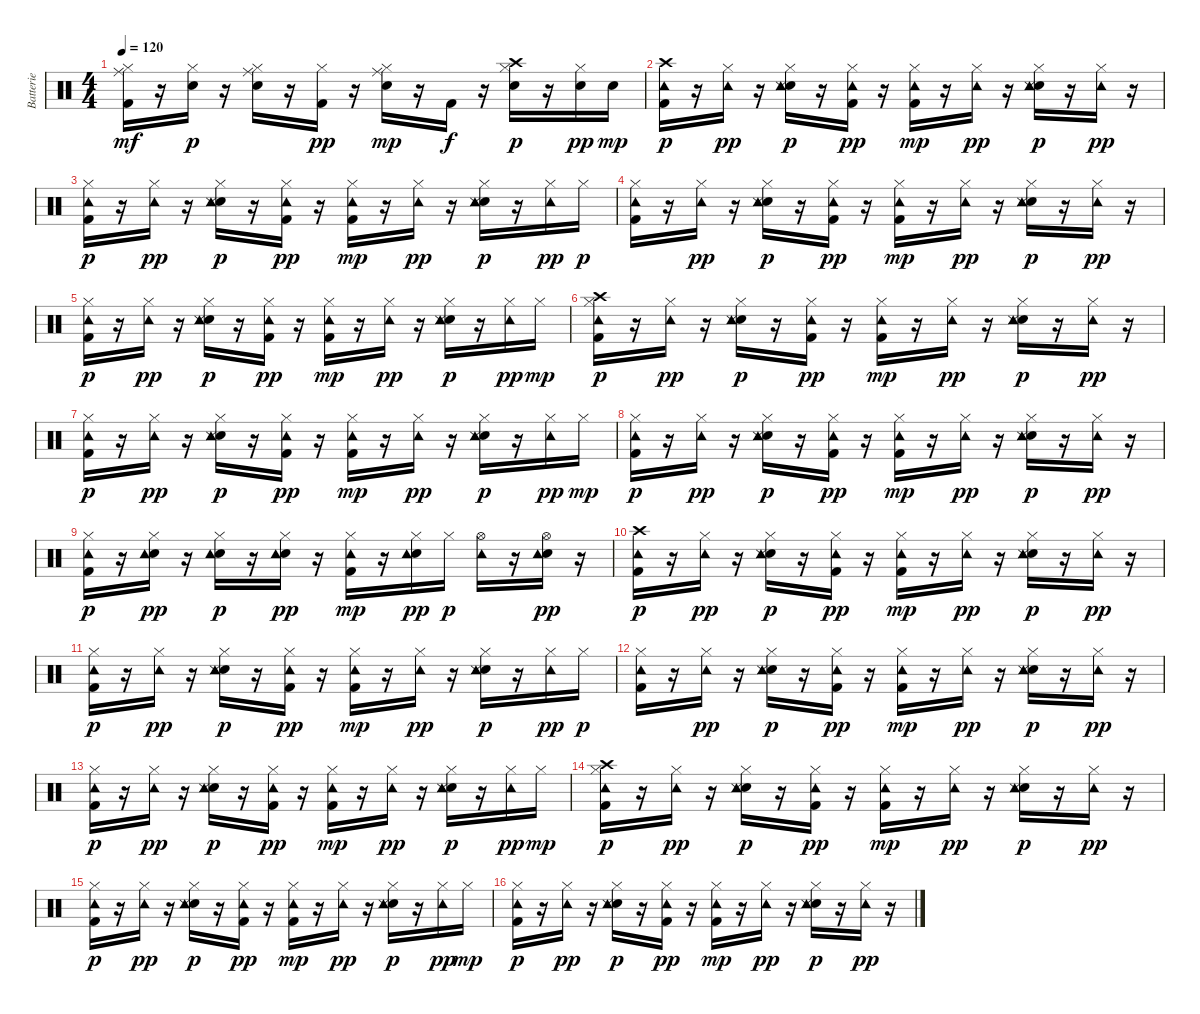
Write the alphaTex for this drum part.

\track ("Batterie" "Batterie") {instrument percussion}
\staff {score}
\articulation defaults
\ts (4 4)
\tempo 120
\clef neutral
\ks c
("Kick (hit) 2" "Hi-Hat (closed)" "Ride (middle)").16{dy mf} r.16 ("Snare (hit) 2" "Hi-Hat (closed)").16{dy p} r.16 ("Snare (hit) 2" "Hi-Hat (closed)" "Ride (middle)").16 r.16 ("Kick (hit) 2" "Hi-Hat (closed)").16{dy pp} r.16 ("Snare (hit) 2" "Hi-Hat (closed)" "Ride (middle)").16{dy mp} r.16 "Kick (hit) 2".16{dy f} r.16 ("Snare (hit) 2" "Hi-Hat (closed)" "Crash high (hit)").16{dy p} r.16 ("Snare (hit) 2" "Hi-Hat (closed)").16{dy pp} "Snare (hit) 2".16{dy mp} |
("Kick (hit) 2" "Crash high (hit)" "Tambourine (hit)").16{dy p} r.16 ("Hi-Hat (closed)" "Tambourine (hit)").16{dy pp} r.16 ("Snare (hit) 2" "Hi-Hat (closed)" "Snare (side stick) 3" "Tambourine (hit)").16{dy p} r.16 ("Kick (hit) 2" "Hi-Hat (closed)" "Tambourine (hit)").16{dy pp} r.16 ("Kick (hit) 2" "Hi-Hat (closed)" "Tambourine (hit)").16{dy mp} r.16 ("Hi-Hat (closed)" "Tambourine (hit)").16{dy pp} r.16 ("Snare (hit) 2" "Hi-Hat (closed)" "Snare (side stick) 3" "Tambourine (hit)").16{dy p} r.16 ("Hi-Hat (closed)" "Tambourine (hit)").16{dy pp} r.16 |
("Kick (hit) 2" "Hi-Hat (closed)" "Tambourine (hit)").16{dy p} r.16 ("Hi-Hat (closed)" "Tambourine (hit)").16{dy pp} r.16 ("Snare (hit) 2" "Hi-Hat (closed)" "Snare (side stick) 3" "Tambourine (hit)").16{dy p} r.16 ("Kick (hit) 2" "Hi-Hat (closed)" "Tambourine (hit)").16{dy pp} r.16 ("Kick (hit) 2" "Hi-Hat (closed)" "Tambourine (hit)").16{dy mp} r.16 ("Hi-Hat (closed)" "Tambourine (hit)").16{dy pp} r.16 ("Snare (hit) 2" "Hi-Hat (closed)" "Snare (side stick) 3" "Tambourine (hit)").16{dy p} r.16 ("Hi-Hat (closed)" "Tambourine (hit)").16{dy pp} "Hi-Hat (closed)".16{dy p} |
("Kick (hit) 2" "Hi-Hat (closed)" "Tambourine (hit)").16 r.16 ("Hi-Hat (closed)" "Tambourine (hit)").16{dy pp} r.16 ("Snare (hit) 2" "Hi-Hat (closed)" "Snare (side stick) 3" "Tambourine (hit)").16{dy p} r.16 ("Kick (hit) 2" "Hi-Hat (closed)" "Tambourine (hit)").16{dy pp} r.16 ("Kick (hit) 2" "Hi-Hat (closed)" "Tambourine (hit)").16{dy mp} r.16 ("Hi-Hat (closed)" "Tambourine (hit)").16{dy pp} r.16 ("Snare (hit) 2" "Hi-Hat (closed)" "Snare (side stick) 3" "Tambourine (hit)").16{dy p} r.16 ("Hi-Hat (closed)" "Tambourine (hit)").16{dy pp} r.16 |
("Kick (hit) 2" "Hi-Hat (closed)" "Tambourine (hit)").16{dy p} r.16 ("Hi-Hat (closed)" "Tambourine (hit)").16{dy pp} r.16 ("Snare (hit) 2" "Hi-Hat (closed)" "Snare (side stick) 3" "Tambourine (hit)").16{dy p} r.16 ("Kick (hit) 2" "Hi-Hat (closed)" "Tambourine (hit)").16{dy pp} r.16 ("Kick (hit) 2" "Hi-Hat (closed)" "Tambourine (hit)").16{dy mp} r.16 ("Hi-Hat (closed)" "Tambourine (hit)").16{dy pp} r.16 ("Snare (hit) 2" "Hi-Hat (closed)" "Snare (side stick) 3" "Tambourine (hit)").16{dy p} r.16 ("Hi-Hat (closed)" "Tambourine (hit)").16{dy pp} "Hi-Hat (closed)".16{dy mp} |
("Kick (hit) 2" "Hi-Hat (closed)" "Crash high (hit)" "Tambourine (hit)").16{dy p} r.16 ("Hi-Hat (closed)" "Tambourine (hit)").16{dy pp} r.16 ("Snare (hit) 2" "Hi-Hat (closed)" "Snare (side stick) 3" "Tambourine (hit)").16{dy p} r.16 ("Kick (hit) 2" "Hi-Hat (closed)" "Tambourine (hit)").16{dy pp} r.16 ("Kick (hit) 2" "Hi-Hat (closed)" "Tambourine (hit)").16{dy mp} r.16 ("Hi-Hat (closed)" "Tambourine (hit)").16{dy pp} r.16 ("Snare (hit) 2" "Hi-Hat (closed)" "Snare (side stick) 3" "Tambourine (hit)").16{dy p} r.16 ("Hi-Hat (closed)" "Tambourine (hit)").16{dy pp} r.16 |
("Kick (hit) 2" "Hi-Hat (closed)" "Tambourine (hit)").16{dy p} r.16 ("Hi-Hat (closed)" "Tambourine (hit)").16{dy pp} r.16 ("Snare (hit) 2" "Hi-Hat (closed)" "Snare (side stick) 3" "Tambourine (hit)").16{dy p} r.16 ("Kick (hit) 2" "Hi-Hat (closed)" "Tambourine (hit)").16{dy pp} r.16 ("Kick (hit) 2" "Hi-Hat (closed)" "Tambourine (hit)").16{dy mp} r.16 ("Hi-Hat (closed)" "Tambourine (hit)").16{dy pp} r.16 ("Snare (hit) 2" "Hi-Hat (closed)" "Snare (side stick) 3" "Tambourine (hit)").16{dy p} r.16 ("Hi-Hat (closed)" "Tambourine (hit)").16{dy pp} "Hi-Hat (closed)".16{dy mp} |
("Kick (hit) 2" "Hi-Hat (closed)" "Tambourine (hit)").16{dy p} r.16 ("Hi-Hat (closed)" "Tambourine (hit)").16{dy pp} r.16 ("Snare (hit) 2" "Hi-Hat (closed)" "Snare (side stick) 3" "Tambourine (hit)").16{dy p} r.16 ("Kick (hit) 2" "Hi-Hat (closed)" "Tambourine (hit)").16{dy pp} r.16 ("Kick (hit) 2" "Hi-Hat (closed)" "Tambourine (hit)").16{dy mp} r.16 ("Hi-Hat (closed)" "Tambourine (hit)").16{dy pp} r.16 ("Snare (hit) 2" "Hi-Hat (closed)" "Snare (side stick) 3" "Tambourine (hit)").16{dy p} r.16 ("Hi-Hat (closed)" "Tambourine (hit)").16{dy pp} r.16 |
("Kick (hit) 2" "Hi-Hat (closed)" "Tambourine (hit)").16{dy p} r.16 ("Snare (hit) 2" "Hi-Hat (closed)" "Tambourine (hit)").16{dy pp} r.16 ("Snare (hit) 2" "Hi-Hat (closed)" "Tambourine (hit)").16{dy p} r.16 ("Snare (hit) 2" "Hi-Hat (closed)" "Tambourine (hit)").16{dy pp} r.16 ("Kick (hit) 2" "Hi-Hat (closed)" "Tambourine (hit)").16{dy mp} r.16 ("Snare (hit) 2" "Hi-Hat (closed)" "Tambourine (hit)").16{dy pp} "Hi-Hat (closed)".16{dy p} ("Hi-Hat (open)" "Tambourine (hit)").16 r.16 ("Snare (hit) 2" "Hi-Hat (open)" "Tambourine (hit)").16{dy pp} r.16 |
("Kick (hit) 2" "Crash high (hit)" "Tambourine (hit)").16{dy p} r.16 ("Hi-Hat (closed)" "Tambourine (hit)").16{dy pp} r.16 ("Snare (hit) 2" "Hi-Hat (closed)" "Snare (side stick) 3" "Tambourine (hit)").16{dy p} r.16 ("Kick (hit) 2" "Hi-Hat (closed)" "Tambourine (hit)").16{dy pp} r.16 ("Kick (hit) 2" "Hi-Hat (closed)" "Tambourine (hit)").16{dy mp} r.16 ("Hi-Hat (closed)" "Tambourine (hit)").16{dy pp} r.16 ("Snare (hit) 2" "Hi-Hat (closed)" "Snare (side stick) 3" "Tambourine (hit)").16{dy p} r.16 ("Hi-Hat (closed)" "Tambourine (hit)").16{dy pp} r.16 |
("Kick (hit) 2" "Hi-Hat (closed)" "Tambourine (hit)").16{dy p} r.16 ("Hi-Hat (closed)" "Tambourine (hit)").16{dy pp} r.16 ("Snare (hit) 2" "Hi-Hat (closed)" "Snare (side stick) 3" "Tambourine (hit)").16{dy p} r.16 ("Kick (hit) 2" "Hi-Hat (closed)" "Tambourine (hit)").16{dy pp} r.16 ("Kick (hit) 2" "Hi-Hat (closed)" "Tambourine (hit)").16{dy mp} r.16 ("Hi-Hat (closed)" "Tambourine (hit)").16{dy pp} r.16 ("Snare (hit) 2" "Hi-Hat (closed)" "Snare (side stick) 3" "Tambourine (hit)").16{dy p} r.16 ("Hi-Hat (closed)" "Tambourine (hit)").16{dy pp} "Hi-Hat (closed)".16{dy p} |
("Kick (hit) 2" "Hi-Hat (closed)" "Tambourine (hit)").16 r.16 ("Hi-Hat (closed)" "Tambourine (hit)").16{dy pp} r.16 ("Snare (hit) 2" "Hi-Hat (closed)" "Snare (side stick) 3" "Tambourine (hit)").16{dy p} r.16 ("Kick (hit) 2" "Hi-Hat (closed)" "Tambourine (hit)").16{dy pp} r.16 ("Kick (hit) 2" "Hi-Hat (closed)" "Tambourine (hit)").16{dy mp} r.16 ("Hi-Hat (closed)" "Tambourine (hit)").16{dy pp} r.16 ("Snare (hit) 2" "Hi-Hat (closed)" "Snare (side stick) 3" "Tambourine (hit)").16{dy p} r.16 ("Hi-Hat (closed)" "Tambourine (hit)").16{dy pp} r.16 |
("Kick (hit) 2" "Hi-Hat (closed)" "Tambourine (hit)").16{dy p} r.16 ("Hi-Hat (closed)" "Tambourine (hit)").16{dy pp} r.16 ("Snare (hit) 2" "Hi-Hat (closed)" "Snare (side stick) 3" "Tambourine (hit)").16{dy p} r.16 ("Kick (hit) 2" "Hi-Hat (closed)" "Tambourine (hit)").16{dy pp} r.16 ("Kick (hit) 2" "Hi-Hat (closed)" "Tambourine (hit)").16{dy mp} r.16 ("Hi-Hat (closed)" "Tambourine (hit)").16{dy pp} r.16 ("Snare (hit) 2" "Hi-Hat (closed)" "Snare (side stick) 3" "Tambourine (hit)").16{dy p} r.16 ("Hi-Hat (closed)" "Tambourine (hit)").16{dy pp} "Hi-Hat (closed)".16{dy mp} |
("Kick (hit) 2" "Hi-Hat (closed)" "Crash high (hit)" "Tambourine (hit)").16{dy p} r.16 ("Hi-Hat (closed)" "Tambourine (hit)").16{dy pp} r.16 ("Snare (hit) 2" "Hi-Hat (closed)" "Snare (side stick) 3" "Tambourine (hit)").16{dy p} r.16 ("Kick (hit) 2" "Hi-Hat (closed)" "Tambourine (hit)").16{dy pp} r.16 ("Kick (hit) 2" "Hi-Hat (closed)" "Tambourine (hit)").16{dy mp} r.16 ("Hi-Hat (closed)" "Tambourine (hit)").16{dy pp} r.16 ("Snare (hit) 2" "Hi-Hat (closed)" "Snare (side stick) 3" "Tambourine (hit)").16{dy p} r.16 ("Hi-Hat (closed)" "Tambourine (hit)").16{dy pp} r.16 |
("Kick (hit) 2" "Hi-Hat (closed)" "Tambourine (hit)").16{dy p} r.16 ("Hi-Hat (closed)" "Tambourine (hit)").16{dy pp} r.16 ("Snare (hit) 2" "Hi-Hat (closed)" "Snare (side stick) 3" "Tambourine (hit)").16{dy p} r.16 ("Kick (hit) 2" "Hi-Hat (closed)" "Tambourine (hit)").16{dy pp} r.16 ("Kick (hit) 2" "Hi-Hat (closed)" "Tambourine (hit)").16{dy mp} r.16 ("Hi-Hat (closed)" "Tambourine (hit)").16{dy pp} r.16 ("Snare (hit) 2" "Hi-Hat (closed)" "Snare (side stick) 3" "Tambourine (hit)").16{dy p} r.16 ("Hi-Hat (closed)" "Tambourine (hit)").16{dy pp} "Hi-Hat (closed)".16{dy mp} |
("Kick (hit) 2" "Hi-Hat (closed)" "Tambourine (hit)").16{dy p} r.16 ("Hi-Hat (closed)" "Tambourine (hit)").16{dy pp} r.16 ("Snare (hit) 2" "Hi-Hat (closed)" "Snare (side stick) 3" "Tambourine (hit)").16{dy p} r.16 ("Kick (hit) 2" "Hi-Hat (closed)" "Tambourine (hit)").16{dy pp} r.16 ("Kick (hit) 2" "Hi-Hat (closed)" "Tambourine (hit)").16{dy mp} r.16 ("Hi-Hat (closed)" "Tambourine (hit)").16{dy pp} r.16 ("Snare (hit) 2" "Hi-Hat (closed)" "Snare (side stick) 3" "Tambourine (hit)").16{dy p} r.16 ("Hi-Hat (closed)" "Tambourine (hit)").16{dy pp} r.16
